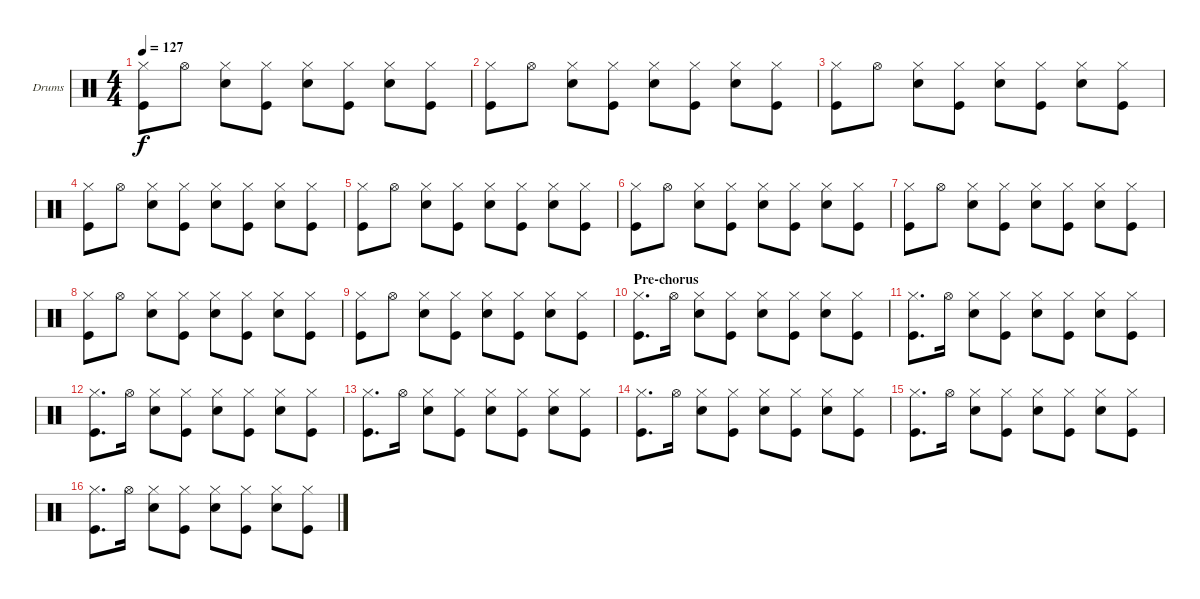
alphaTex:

\bracketExtendMode groupsimilarinstruments
\firstSystemTrackNameOrientation horizontal
\otherSystemsTrackNameOrientation horizontal
\track ("Drumkit" "Drums") {instrument percussion}
\staff {score}
\articulation defaults
\ts (4 4)
\tempo 127
\clef neutral
\ks c
("Hi-Hat (closed)" "Kick (hit)").8{dy f} "Hi-Hat (open)".8 ("Hi-Hat (closed)" "Snare (hit) 2").8 ("Hi-Hat (closed)" "Kick (hit)").8 ("Hi-Hat (closed)" "Snare (hit) 2").8 ("Hi-Hat (closed)" "Kick (hit)").8 ("Hi-Hat (closed)" "Snare (hit) 2").8 ("Hi-Hat (closed)" "Kick (hit)").8 |
("Hi-Hat (closed)" "Kick (hit)").8 "Hi-Hat (open)".8 ("Hi-Hat (closed)" "Snare (hit) 2").8 ("Hi-Hat (closed)" "Kick (hit)").8 ("Hi-Hat (closed)" "Snare (hit) 2").8 ("Hi-Hat (closed)" "Kick (hit)").8 ("Hi-Hat (closed)" "Snare (hit) 2").8 ("Hi-Hat (closed)" "Kick (hit)").8 |
("Hi-Hat (closed)" "Kick (hit)").8 "Hi-Hat (open)".8 ("Hi-Hat (closed)" "Snare (hit) 2").8 ("Hi-Hat (closed)" "Kick (hit)").8 ("Hi-Hat (closed)" "Snare (hit) 2").8 ("Hi-Hat (closed)" "Kick (hit)").8 ("Hi-Hat (closed)" "Snare (hit) 2").8 ("Hi-Hat (closed)" "Kick (hit)").8 |
("Hi-Hat (closed)" "Kick (hit)").8 "Hi-Hat (open)".8 ("Hi-Hat (closed)" "Snare (hit) 2").8 ("Hi-Hat (closed)" "Kick (hit)").8 ("Hi-Hat (closed)" "Snare (hit) 2").8 ("Hi-Hat (closed)" "Kick (hit)").8 ("Hi-Hat (closed)" "Snare (hit) 2").8 ("Hi-Hat (closed)" "Kick (hit)").8 |
("Hi-Hat (closed)" "Kick (hit)").8 "Hi-Hat (open)".8 ("Hi-Hat (closed)" "Snare (hit) 2").8 ("Hi-Hat (closed)" "Kick (hit)").8 ("Hi-Hat (closed)" "Snare (hit) 2").8 ("Hi-Hat (closed)" "Kick (hit)").8 ("Hi-Hat (closed)" "Snare (hit) 2").8 ("Hi-Hat (closed)" "Kick (hit)").8 |
("Hi-Hat (closed)" "Kick (hit)").8 "Hi-Hat (open)".8 ("Hi-Hat (closed)" "Snare (hit) 2").8 ("Hi-Hat (closed)" "Kick (hit)").8 ("Hi-Hat (closed)" "Snare (hit) 2").8 ("Hi-Hat (closed)" "Kick (hit)").8 ("Hi-Hat (closed)" "Snare (hit) 2").8 ("Hi-Hat (closed)" "Kick (hit)").8 |
("Hi-Hat (closed)" "Kick (hit)").8 "Hi-Hat (open)".8 ("Hi-Hat (closed)" "Snare (hit) 2").8 ("Hi-Hat (closed)" "Kick (hit)").8 ("Hi-Hat (closed)" "Snare (hit) 2").8 ("Hi-Hat (closed)" "Kick (hit)").8 ("Hi-Hat (closed)" "Snare (hit) 2").8 ("Hi-Hat (closed)" "Kick (hit)").8 |
("Hi-Hat (closed)" "Kick (hit)").8 "Hi-Hat (open)".8 ("Hi-Hat (closed)" "Snare (hit) 2").8 ("Hi-Hat (closed)" "Kick (hit)").8 ("Hi-Hat (closed)" "Snare (hit) 2").8 ("Hi-Hat (closed)" "Kick (hit)").8 ("Hi-Hat (closed)" "Snare (hit) 2").8 ("Hi-Hat (closed)" "Kick (hit)").8 |
("Hi-Hat (closed)" "Kick (hit)").8 "Hi-Hat (open)".8 ("Hi-Hat (closed)" "Snare (hit) 2").8 ("Hi-Hat (closed)" "Kick (hit)").8 ("Hi-Hat (closed)" "Snare (hit) 2").8 ("Hi-Hat (closed)" "Kick (hit)").8 ("Hi-Hat (closed)" "Snare (hit) 2").8 ("Hi-Hat (closed)" "Kick (hit)").8 |
\section ("" "Pre-chorus")
("Hi-Hat (closed)" "Kick (hit)").8{d} "Hi-Hat (open)".16 ("Hi-Hat (closed)" "Snare (hit) 2").8 ("Hi-Hat (closed)" "Kick (hit)").8 ("Hi-Hat (closed)" "Snare (hit) 2").8 ("Hi-Hat (closed)" "Kick (hit)").8 ("Hi-Hat (closed)" "Snare (hit) 2").8 ("Hi-Hat (closed)" "Kick (hit)").8 |
("Hi-Hat (closed)" "Kick (hit)").8{d} "Hi-Hat (open)".16 ("Hi-Hat (closed)" "Snare (hit) 2").8 ("Hi-Hat (closed)" "Kick (hit)").8 ("Hi-Hat (closed)" "Snare (hit) 2").8 ("Hi-Hat (closed)" "Kick (hit)").8 ("Hi-Hat (closed)" "Snare (hit) 2").8 ("Hi-Hat (closed)" "Kick (hit)").8 |
("Hi-Hat (closed)" "Kick (hit)").8{d} "Hi-Hat (open)".16 ("Hi-Hat (closed)" "Snare (hit) 2").8 ("Hi-Hat (closed)" "Kick (hit)").8 ("Hi-Hat (closed)" "Snare (hit) 2").8 ("Hi-Hat (closed)" "Kick (hit)").8 ("Hi-Hat (closed)" "Snare (hit) 2").8 ("Hi-Hat (closed)" "Kick (hit)").8 |
("Hi-Hat (closed)" "Kick (hit)").8{d} "Hi-Hat (open)".16 ("Hi-Hat (closed)" "Snare (hit) 2").8 ("Hi-Hat (closed)" "Kick (hit)").8 ("Hi-Hat (closed)" "Snare (hit) 2").8 ("Hi-Hat (closed)" "Kick (hit)").8 ("Hi-Hat (closed)" "Snare (hit) 2").8 ("Hi-Hat (closed)" "Kick (hit)").8 |
("Hi-Hat (closed)" "Kick (hit)").8{d} "Hi-Hat (open)".16 ("Hi-Hat (closed)" "Snare (hit) 2").8 ("Hi-Hat (closed)" "Kick (hit)").8 ("Hi-Hat (closed)" "Snare (hit) 2").8 ("Hi-Hat (closed)" "Kick (hit)").8 ("Hi-Hat (closed)" "Snare (hit) 2").8 ("Hi-Hat (closed)" "Kick (hit)").8 |
("Hi-Hat (closed)" "Kick (hit)").8{d} "Hi-Hat (open)".16 ("Hi-Hat (closed)" "Snare (hit) 2").8 ("Hi-Hat (closed)" "Kick (hit)").8 ("Hi-Hat (closed)" "Snare (hit) 2").8 ("Hi-Hat (closed)" "Kick (hit)").8 ("Hi-Hat (closed)" "Snare (hit) 2").8 ("Hi-Hat (closed)" "Kick (hit)").8 |
("Hi-Hat (closed)" "Kick (hit)").8{d} "Hi-Hat (open)".16 ("Hi-Hat (closed)" "Snare (hit) 2").8 ("Hi-Hat (closed)" "Kick (hit)").8 ("Hi-Hat (closed)" "Snare (hit) 2").8 ("Hi-Hat (closed)" "Kick (hit)").8 ("Hi-Hat (closed)" "Snare (hit) 2").8 ("Hi-Hat (closed)" "Kick (hit)").8
